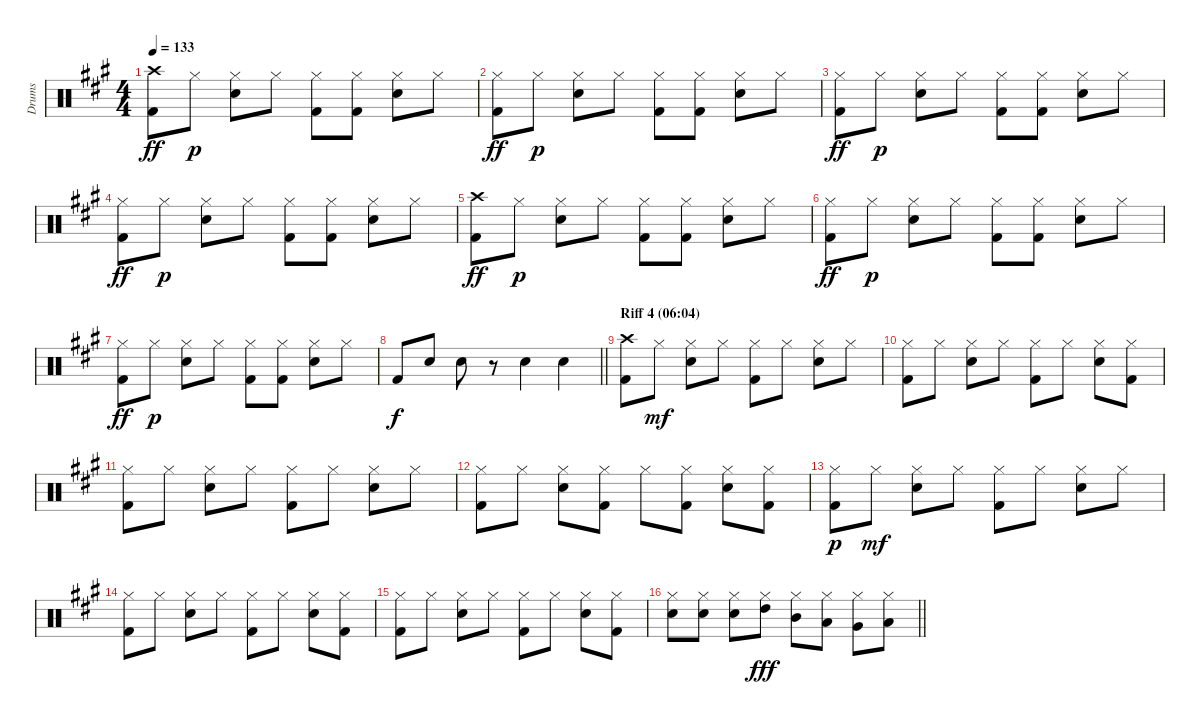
\track ("Drums" "Drums") {instrument percussion}
\staff {score}
\articulation defaults
\ts (4 4)
\tempo 133
\clef neutral
\ks a
("Crash high (hit)" "Kick (hit) 2").8{dy ff} "Hi-Hat (closed)".8{dy p} ("Hi-Hat (closed)" "Snare (hit) 2").8 "Hi-Hat (closed)".8 ("Hi-Hat (closed)" "Kick (hit) 2").8 ("Hi-Hat (closed)" "Kick (hit) 2").8 ("Hi-Hat (closed)" "Snare (hit) 2").8 "Hi-Hat (closed)".8 |
("Hi-Hat (closed)" "Kick (hit) 2").8{dy ff} "Hi-Hat (closed)".8{dy p} ("Hi-Hat (closed)" "Snare (hit) 2").8 "Hi-Hat (closed)".8 ("Hi-Hat (closed)" "Kick (hit) 2").8 ("Hi-Hat (closed)" "Kick (hit) 2").8 ("Hi-Hat (closed)" "Snare (hit) 2").8 "Hi-Hat (closed)".8 |
("Hi-Hat (closed)" "Kick (hit) 2").8{dy ff} "Hi-Hat (closed)".8{dy p} ("Hi-Hat (closed)" "Snare (hit) 2").8 "Hi-Hat (closed)".8 ("Hi-Hat (closed)" "Kick (hit) 2").8 ("Hi-Hat (closed)" "Kick (hit) 2").8 ("Hi-Hat (closed)" "Snare (hit) 2").8 "Hi-Hat (closed)".8 |
("Hi-Hat (closed)" "Kick (hit) 2").8{dy ff} "Hi-Hat (closed)".8{dy p} ("Hi-Hat (closed)" "Snare (hit) 2").8 "Hi-Hat (closed)".8 ("Hi-Hat (closed)" "Kick (hit) 2").8 ("Hi-Hat (closed)" "Kick (hit) 2").8 ("Hi-Hat (closed)" "Snare (hit) 2").8 "Hi-Hat (closed)".8 |
("Crash high (hit)" "Kick (hit) 2").8{dy ff} "Hi-Hat (closed)".8{dy p} ("Hi-Hat (closed)" "Snare (hit) 2").8 "Hi-Hat (closed)".8 ("Hi-Hat (closed)" "Kick (hit) 2").8 ("Hi-Hat (closed)" "Kick (hit) 2").8 ("Hi-Hat (closed)" "Snare (hit) 2").8 "Hi-Hat (closed)".8 |
("Hi-Hat (closed)" "Kick (hit) 2").8{dy ff} "Hi-Hat (closed)".8{dy p} ("Hi-Hat (closed)" "Snare (hit) 2").8 "Hi-Hat (closed)".8 ("Hi-Hat (closed)" "Kick (hit) 2").8 ("Hi-Hat (closed)" "Kick (hit) 2").8 ("Hi-Hat (closed)" "Snare (hit) 2").8 "Hi-Hat (closed)".8 |
("Hi-Hat (closed)" "Kick (hit) 2").8{dy ff} "Hi-Hat (closed)".8{dy p} ("Hi-Hat (closed)" "Snare (hit) 2").8 "Hi-Hat (closed)".8 ("Hi-Hat (closed)" "Kick (hit) 2").8 ("Hi-Hat (closed)" "Kick (hit) 2").8 ("Hi-Hat (closed)" "Snare (hit) 2").8 "Hi-Hat (closed)".8 |
\barLineRight lightlight "Kick (hit) 2".8{dy f} "Snare (hit) 2".8 "Snare (hit) 2".8
r.8 "Snare (hit) 2".4 "Snare (hit) 2".4 |
\section ("" "Riff 4 (06:04)")
("Crash high (hit)" "Kick (hit) 2").8 "Hi-Hat (closed)".8{dy mf} ("Hi-Hat (closed)" "Snare (hit) 2").8 "Hi-Hat (closed)".8 ("Hi-Hat (closed)" "Kick (hit) 2").8 "Hi-Hat (closed)".8 ("Hi-Hat (closed)" "Snare (hit) 2").8 "Hi-Hat (closed)".8 |
("Hi-Hat (closed)" "Kick (hit) 2").8 "Hi-Hat (closed)".8 ("Hi-Hat (closed)" "Snare (hit) 2").8 "Hi-Hat (closed)".8 ("Hi-Hat (closed)" "Kick (hit) 2").8 "Hi-Hat (closed)".8 ("Hi-Hat (closed)" "Snare (hit) 2").8 ("Hi-Hat (closed)" "Kick (hit) 2").8 |
("Hi-Hat (closed)" "Kick (hit) 2").8 "Hi-Hat (closed)".8 ("Hi-Hat (closed)" "Snare (hit) 2").8 "Hi-Hat (closed)".8 ("Hi-Hat (closed)" "Kick (hit) 2").8 "Hi-Hat (closed)".8 ("Hi-Hat (closed)" "Snare (hit) 2").8 "Hi-Hat (closed)".8 |
("Hi-Hat (closed)" "Kick (hit) 2").8 "Hi-Hat (closed)".8 ("Hi-Hat (closed)" "Snare (hit) 2").8 ("Hi-Hat (closed)" "Kick (hit) 2").8 "Hi-Hat (closed)".8 ("Hi-Hat (closed)" "Kick (hit) 2").8 ("Hi-Hat (closed)" "Snare (hit) 2").8 ("Hi-Hat (closed)" "Kick (hit) 2").8 |
("Hi-Hat (closed)" "Kick (hit) 2").8{dy p} "Hi-Hat (closed)".8{dy mf} ("Hi-Hat (closed)" "Snare (hit) 2").8 "Hi-Hat (closed)".8 ("Hi-Hat (closed)" "Kick (hit) 2").8 "Hi-Hat (closed)".8 ("Hi-Hat (closed)" "Snare (hit) 2").8 "Hi-Hat (closed)".8 |
("Hi-Hat (closed)" "Kick (hit) 2").8 "Hi-Hat (closed)".8 ("Hi-Hat (closed)" "Snare (hit) 2").8 "Hi-Hat (closed)".8 ("Hi-Hat (closed)" "Kick (hit) 2").8 "Hi-Hat (closed)".8 ("Hi-Hat (closed)" "Snare (hit) 2").8 ("Hi-Hat (closed)" "Kick (hit) 2").8 |
("Hi-Hat (closed)" "Kick (hit) 2").8 "Hi-Hat (closed)".8 ("Hi-Hat (closed)" "Snare (hit) 2").8 "Hi-Hat (closed)".8 ("Hi-Hat (closed)" "Kick (hit) 2").8 "Hi-Hat (closed)".8 ("Hi-Hat (closed)" "Snare (hit) 2").8 ("Hi-Hat (closed)" "Kick (hit) 2").8 |
\barLineRight lightlight
("Hi-Hat (closed)" "Snare (hit) 2").8 ("Hi-Hat (closed)" "Snare (hit) 2").8 ("Hi-Hat (closed)" "Snare (hit) 2").8 ("Hi-Hat (closed)" "High Tom (hit)").8{dy fff} ("Hi-Hat (closed)" "Mid Tom (hit)").8 ("Hi-Hat (closed)" "Low Tom (hit)").8 ("Hi-Hat (closed)" "Very Low Tom (hit)").8 ("Hi-Hat (closed)" "Low Floor Tom (hit)").8
